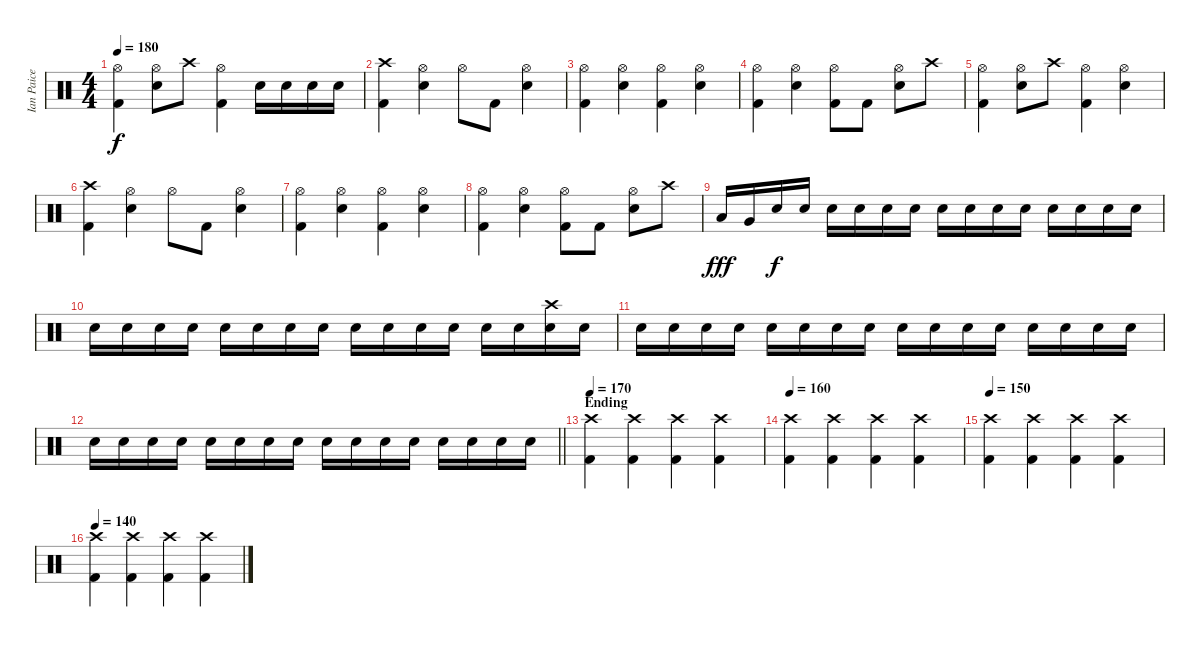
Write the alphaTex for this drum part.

\track ("Ian Paice" "Ian Paice") {instrument percussion}
\staff {score}
\articulation defaults
\ts (4 4)
\tempo 180
\clef neutral
\ks c
("Hi-Hat (open)" "Kick (hit) 2").4{dy f} ("Hi-Hat (open)" "Snare (hit) 2").8 "Crash high (hit)".8 ("Hi-Hat (open)" "Kick (hit) 2").4 "Snare (hit) 2".16 "Snare (hit) 2".16 "Snare (hit) 2".16 "Snare (hit) 2".16 |
("Crash high (hit)" "Kick (hit) 2").4 ("Hi-Hat (open)" "Snare (hit) 2").4 "Hi-Hat (open)".8 "Kick (hit) 2".8 ("Hi-Hat (open)" "Snare (hit) 2").4 |
("Hi-Hat (open)" "Kick (hit) 2").4 ("Hi-Hat (open)" "Snare (hit) 2").4 ("Hi-Hat (open)" "Kick (hit) 2").4 ("Hi-Hat (open)" "Snare (hit) 2").4 |
("Hi-Hat (open)" "Kick (hit) 2").4 ("Hi-Hat (open)" "Snare (hit) 2").4 ("Hi-Hat (open)" "Kick (hit) 2").8 "Kick (hit) 2".8 ("Hi-Hat (open)" "Snare (hit) 2").8 "Crash high (hit)".8 |
("Hi-Hat (open)" "Kick (hit) 2").4 ("Hi-Hat (open)" "Snare (hit) 2").8 "Crash high (hit)".8 ("Hi-Hat (open)" "Kick (hit) 2").4 ("Hi-Hat (open)" "Snare (hit) 2").4 |
("Crash high (hit)" "Kick (hit) 2").4 ("Hi-Hat (open)" "Snare (hit) 2").4 "Hi-Hat (open)".8 "Kick (hit) 2".8 ("Hi-Hat (open)" "Snare (hit) 2").4 |
("Hi-Hat (open)" "Kick (hit) 2").4 ("Hi-Hat (open)" "Snare (hit) 2").4 ("Hi-Hat (open)" "Kick (hit) 2").4 ("Hi-Hat (open)" "Snare (hit) 2").4 |
("Hi-Hat (open)" "Kick (hit) 2").4 ("Hi-Hat (open)" "Snare (hit) 2").4 ("Hi-Hat (open)" "Kick (hit) 2").8 "Kick (hit) 2".8 ("Hi-Hat (open)" "Snare (hit) 2").8 "Crash high (hit)".8 |
"Low Tom (hit)".16{dy fff} "Very Low Tom (hit)".16 "Snare (hit) 2".16{dy f} "Snare (hit) 2".16 "Snare (hit) 2".16 "Snare (hit) 2".16 "Snare (hit) 2".16 "Snare (hit) 2".16 "Snare (hit) 2".16 "Snare (hit) 2".16 "Snare (hit) 2".16 "Snare (hit) 2".16 "Snare (hit) 2".16 "Snare (hit) 2".16 "Snare (hit) 2".16 "Snare (hit) 2".16 |
"Snare (hit) 2".16 "Snare (hit) 2".16 "Snare (hit) 2".16 "Snare (hit) 2".16 "Snare (hit) 2".16 "Snare (hit) 2".16 "Snare (hit) 2".16 "Snare (hit) 2".16 "Snare (hit) 2".16 "Snare (hit) 2".16 "Snare (hit) 2".16 "Snare (hit) 2".16 "Snare (hit) 2".16 "Snare (hit) 2".16 ("Crash high (hit)" "Snare (hit) 2").16 "Snare (hit) 2".16 |
"Snare (hit) 2".16 "Snare (hit) 2".16 "Snare (hit) 2".16 "Snare (hit) 2".16 "Snare (hit) 2".16 "Snare (hit) 2".16 "Snare (hit) 2".16 "Snare (hit) 2".16 "Snare (hit) 2".16 "Snare (hit) 2".16 "Snare (hit) 2".16 "Snare (hit) 2".16 "Snare (hit) 2".16 "Snare (hit) 2".16 "Snare (hit) 2".16 "Snare (hit) 2".16 |
\barLineRight lightlight "Snare (hit) 2".16 "Snare (hit) 2".16 "Snare (hit) 2".16 "Snare (hit) 2".16 "Snare (hit) 2".16 "Snare (hit) 2".16 "Snare (hit) 2".16 "Snare (hit) 2".16 "Snare (hit) 2".16 "Snare (hit) 2".16 "Snare (hit) 2".16 "Snare (hit) 2".16 "Snare (hit) 2".16 "Snare (hit) 2".16 "Snare (hit) 2".16 "Snare (hit) 2".16
|
\section ("" "Ending")
\tempo 170
\ks aminor
("Crash high (hit)" "Kick (hit) 2").4 ("Crash high (hit)" "Kick (hit) 2").4 ("Crash high (hit)" "Kick (hit) 2").4 ("Crash high (hit)" "Kick (hit) 2").4 |
\tempo 160
("Crash high (hit)" "Kick (hit) 2").4 ("Crash high (hit)" "Kick (hit) 2").4 ("Crash high (hit)" "Kick (hit) 2").4 ("Crash high (hit)" "Kick (hit) 2").4 |
\tempo 150
("Crash high (hit)" "Kick (hit) 2").4 ("Crash high (hit)" "Kick (hit) 2").4 ("Crash high (hit)" "Kick (hit) 2").4 ("Crash high (hit)" "Kick (hit) 2").4 |
\tempo 140
("Crash high (hit)" "Kick (hit) 2").4 ("Crash high (hit)" "Kick (hit) 2").4 ("Crash high (hit)" "Kick (hit) 2").4 ("Crash high (hit)" "Kick (hit) 2").4
